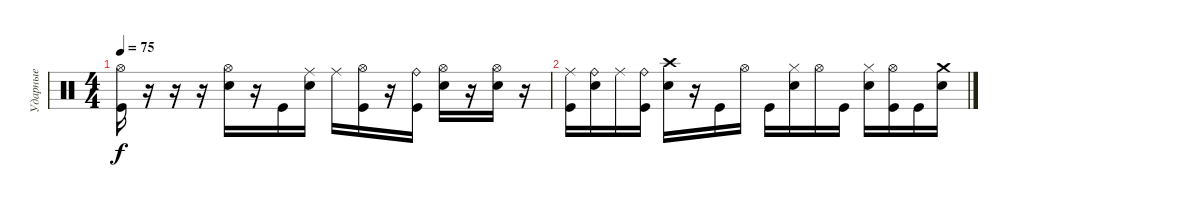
\track ("Ударные" "Ударные") {instrument percussion}
\staff {score}
\articulation defaults
\ts (4 4)
\tempo 75
\clef neutral
\ks c
("Hi-Hat (open)" "Kick (hit)").16{dy f} r.16 r.16 r.16 ("Hi-Hat (open)" "Snare (hit) 2").16 r.16 "Kick (hit)".16 ("Ride (middle)" "Snare (hit) 2").16 "Ride (middle)".16 ("Hi-Hat (open)" "Kick (hit)").16 r.16 ("Ride (bell)" "Kick (hit)").16 ("Hi-Hat (open)" "Snare (hit) 2").16 r.16 ("Hi-Hat (open)" "Snare (hit) 2").16 r.16 |
("Ride (middle)" "Kick (hit)").16 ("Ride (bell)" "Snare (hit) 2").16 "Ride (middle)".16 ("Ride (bell)" "Kick (hit)").16 ("Crash high (hit)" "Snare (hit) 2").16 r.16 "Kick (hit)".16 "Hi-Hat (open)".16 "Kick (hit)".16 ("Hi-Hat (closed)" "Snare (hit) 2").16 "Hi-Hat (open)".16 "Kick (hit)".16 ("Hi-Hat (closed)" "Snare (hit) 2").16 ("Hi-Hat (open)" "Kick (hit)").16 "Kick (hit)".16 ("Crash medium (hit)" "Snare (hit) 2").16
